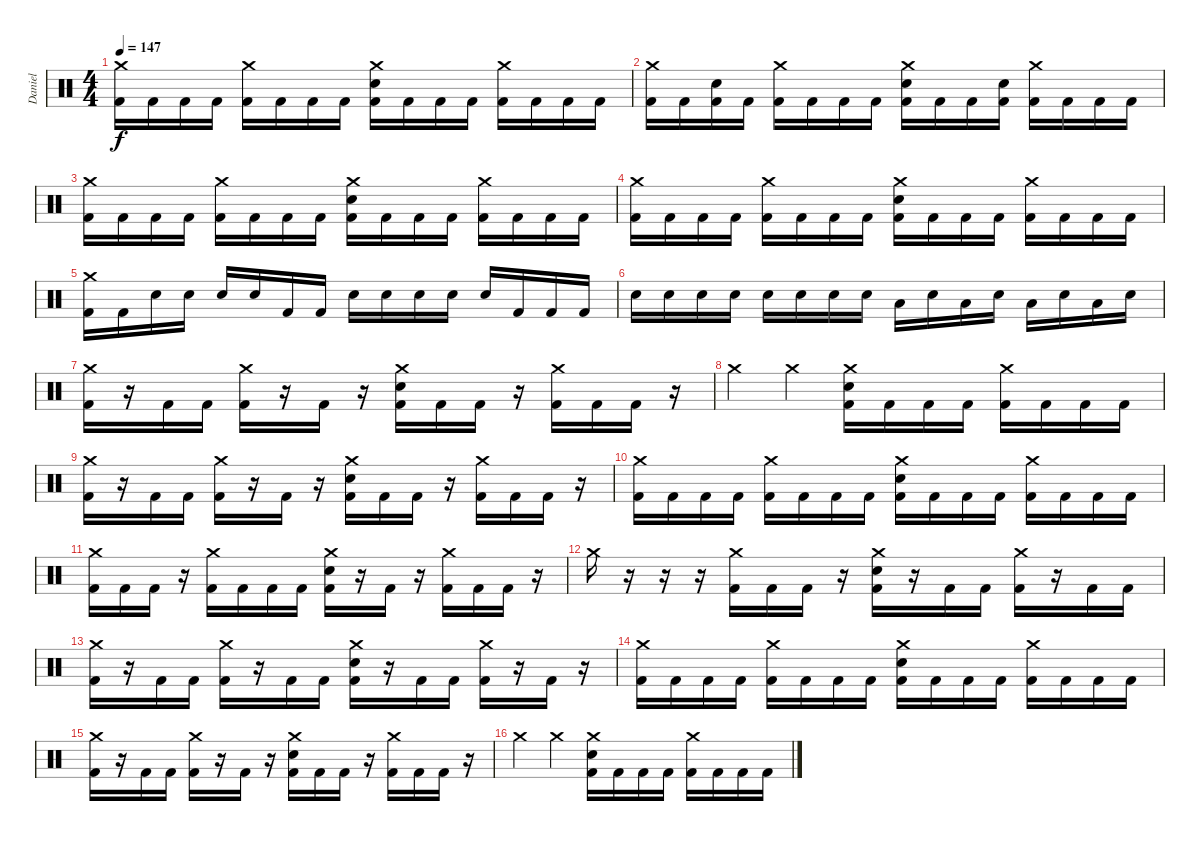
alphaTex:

\track ("Daniel" "Daniel") {instrument percussion}
\staff {score}
\articulation defaults
\ts (4 4)
\tempo 147
\clef neutral
\ks c
("Crash medium (hit)" "Kick (hit) 2").16{dy f} "Kick (hit) 2".16 "Kick (hit) 2".16 "Kick (hit) 2".16 ("Crash medium (hit)" "Kick (hit) 2").16 "Kick (hit) 2".16 "Kick (hit) 2".16 "Kick (hit) 2".16 ("Crash medium (hit)" "Electric Snare (hit)" "Kick (hit) 2").16 "Kick (hit) 2".16 "Kick (hit) 2".16 "Kick (hit) 2".16 ("Crash medium (hit)" "Kick (hit) 2").16 "Kick (hit) 2".16 "Kick (hit) 2".16 "Kick (hit) 2".16 |
("Crash medium (hit)" "Kick (hit) 2").16 "Kick (hit) 2".16 ("Electric Snare (hit)" "Kick (hit) 2").16 "Kick (hit) 2".16 ("Crash medium (hit)" "Kick (hit) 2").16 "Kick (hit) 2".16 "Kick (hit) 2".16 "Kick (hit) 2".16 ("Crash medium (hit)" "Electric Snare (hit)" "Kick (hit) 2").16 "Kick (hit) 2".16 "Kick (hit) 2".16 ("Electric Snare (hit)" "Kick (hit) 2").16 ("Crash medium (hit)" "Kick (hit) 2").16 "Kick (hit) 2".16 "Kick (hit) 2".16 "Kick (hit) 2".16 |
("Crash medium (hit)" "Kick (hit) 2").16 "Kick (hit) 2".16 "Kick (hit) 2".16 "Kick (hit) 2".16 ("Crash medium (hit)" "Kick (hit) 2").16 "Kick (hit) 2".16 "Kick (hit) 2".16 "Kick (hit) 2".16 ("Crash medium (hit)" "Electric Snare (hit)" "Kick (hit) 2").16 "Kick (hit) 2".16 "Kick (hit) 2".16 "Kick (hit) 2".16 ("Crash medium (hit)" "Kick (hit) 2").16 "Kick (hit) 2".16 "Kick (hit) 2".16 "Kick (hit) 2".16 |
("Crash medium (hit)" "Kick (hit) 2").16 "Kick (hit) 2".16 "Kick (hit) 2".16 "Kick (hit) 2".16 ("Crash medium (hit)" "Kick (hit) 2").16 "Kick (hit) 2".16 "Kick (hit) 2".16 "Kick (hit) 2".16 ("Crash medium (hit)" "Electric Snare (hit)" "Kick (hit) 2").16 "Kick (hit) 2".16 "Kick (hit) 2".16 "Kick (hit) 2".16 ("Crash medium (hit)" "Kick (hit) 2").16 "Kick (hit) 2".16 "Kick (hit) 2".16 "Kick (hit) 2".16 |
("Crash medium (hit)" "Kick (hit) 2").16 "Kick (hit) 2".16 "Electric Snare (hit)".16 "Electric Snare (hit)".16 "Electric Snare (hit)".16 "Electric Snare (hit)".16 "Kick (hit) 2".16 "Kick (hit) 2".16 "Electric Snare (hit)".16 "Electric Snare (hit)".16 "Electric Snare (hit)".16 "Electric Snare (hit)".16 "Electric Snare (hit)".16 "Kick (hit) 2".16 "Kick (hit) 2".16 "Kick (hit) 2".16 |
"Electric Snare (hit)".16 "Electric Snare (hit)".16 "Electric Snare (hit)".16 "Electric Snare (hit)".16 "Electric Snare (hit)".16 "Electric Snare (hit)".16 "Electric Snare (hit)".16 "Electric Snare (hit)".16 "Low Tom (hit)".16 "Electric Snare (hit)".16 "Low Tom (hit)".16 "Electric Snare (hit)".16 "Low Tom (hit)".16 "Electric Snare (hit)".16 "Low Tom (hit)".16 "Electric Snare (hit)".16 |
("Crash medium (hit)" "Kick (hit) 2").16 r.16 "Kick (hit) 2".16 "Kick (hit) 2".16 ("Crash medium (hit)" "Kick (hit) 2").16 r.16 "Kick (hit) 2".16 r.16 ("Crash medium (hit)" "Electric Snare (hit)" "Kick (hit) 2").16 "Kick (hit) 2".16 "Kick (hit) 2".16 r.16 ("Crash medium (hit)" "Kick (hit) 2").16 "Kick (hit) 2".16 "Kick (hit) 2".16 r.16 |
"Crash medium (hit)".4 "Crash medium (hit)".4 ("Crash medium (hit)" "Electric Snare (hit)" "Kick (hit) 2").16 "Kick (hit) 2".16 "Kick (hit) 2".16 "Kick (hit) 2".16 ("Crash medium (hit)" "Kick (hit) 2").16 "Kick (hit) 2".16 "Kick (hit) 2".16 "Kick (hit) 2".16 |
("Crash medium (hit)" "Kick (hit) 2").16 r.16 "Kick (hit) 2".16 "Kick (hit) 2".16 ("Crash medium (hit)" "Kick (hit) 2").16 r.16 "Kick (hit) 2".16 r.16 ("Crash medium (hit)" "Electric Snare (hit)" "Kick (hit) 2").16 "Kick (hit) 2".16 "Kick (hit) 2".16 r.16 ("Crash medium (hit)" "Kick (hit) 2").16 "Kick (hit) 2".16 "Kick (hit) 2".16 r.16 |
("Crash medium (hit)" "Kick (hit) 2").16 "Kick (hit) 2".16 "Kick (hit) 2".16 "Kick (hit) 2".16 ("Crash medium (hit)" "Kick (hit) 2").16 "Kick (hit) 2".16 "Kick (hit) 2".16 "Kick (hit) 2".16 ("Crash medium (hit)" "Electric Snare (hit)" "Kick (hit) 2").16 "Kick (hit) 2".16 "Kick (hit) 2".16 "Kick (hit) 2".16 ("Crash medium (hit)" "Kick (hit) 2").16 "Kick (hit) 2".16 "Kick (hit) 2".16 "Kick (hit) 2".16 |
("Crash medium (hit)" "Kick (hit) 2").16 "Kick (hit) 2".16 "Kick (hit) 2".16 r.16 ("Crash medium (hit)" "Kick (hit) 2").16 "Kick (hit) 2".16 "Kick (hit) 2".16 "Kick (hit) 2".16 ("Crash medium (hit)" "Electric Snare (hit)" "Kick (hit) 2").16 r.16 "Kick (hit) 2".16 r.16 ("Crash medium (hit)" "Kick (hit) 2").16 "Kick (hit) 2".16 "Kick (hit) 2".16 r.16 |
"Crash medium (hit)".16 r.16 r.16 r.16 ("Crash medium (hit)" "Kick (hit) 2").16 "Kick (hit) 2".16 "Kick (hit) 2".16 r.16 ("Crash medium (hit)" "Electric Snare (hit)" "Kick (hit) 2").16 r.16 "Kick (hit) 2".16 "Kick (hit) 2".16 ("Crash medium (hit)" "Kick (hit) 2").16 r.16 "Kick (hit) 2".16 "Kick (hit) 2".16 |
("Crash medium (hit)" "Kick (hit) 2").16 r.16 "Kick (hit) 2".16 "Kick (hit) 2".16 ("Crash medium (hit)" "Kick (hit) 2").16 r.16 "Kick (hit) 2".16 "Kick (hit) 2".16 ("Crash medium (hit)" "Electric Snare (hit)" "Kick (hit) 2").16 r.16 "Kick (hit) 2".16 "Kick (hit) 2".16 ("Crash medium (hit)" "Kick (hit) 2").16 r.16 "Kick (hit) 2".16 r.16 |
("Crash medium (hit)" "Kick (hit) 2").16 "Kick (hit) 2".16 "Kick (hit) 2".16 "Kick (hit) 2".16 ("Crash medium (hit)" "Kick (hit) 2").16 "Kick (hit) 2".16 "Kick (hit) 2".16 "Kick (hit) 2".16 ("Crash medium (hit)" "Electric Snare (hit)" "Kick (hit) 2").16 "Kick (hit) 2".16 "Kick (hit) 2".16 "Kick (hit) 2".16 ("Crash medium (hit)" "Kick (hit) 2").16 "Kick (hit) 2".16 "Kick (hit) 2".16 "Kick (hit) 2".16 |
("Crash medium (hit)" "Kick (hit) 2").16 r.16 "Kick (hit) 2".16 "Kick (hit) 2".16 ("Crash medium (hit)" "Kick (hit) 2").16 r.16 "Kick (hit) 2".16 r.16 ("Crash medium (hit)" "Electric Snare (hit)" "Kick (hit) 2").16 "Kick (hit) 2".16 "Kick (hit) 2".16 r.16 ("Crash medium (hit)" "Kick (hit) 2").16 "Kick (hit) 2".16 "Kick (hit) 2".16 r.16 |
"Crash medium (hit)".4 "Crash medium (hit)".4 ("Crash medium (hit)" "Electric Snare (hit)" "Kick (hit) 2").16 "Kick (hit) 2".16 "Kick (hit) 2".16 "Kick (hit) 2".16 ("Crash medium (hit)" "Kick (hit) 2").16 "Kick (hit) 2".16 "Kick (hit) 2".16 "Kick (hit) 2".16
